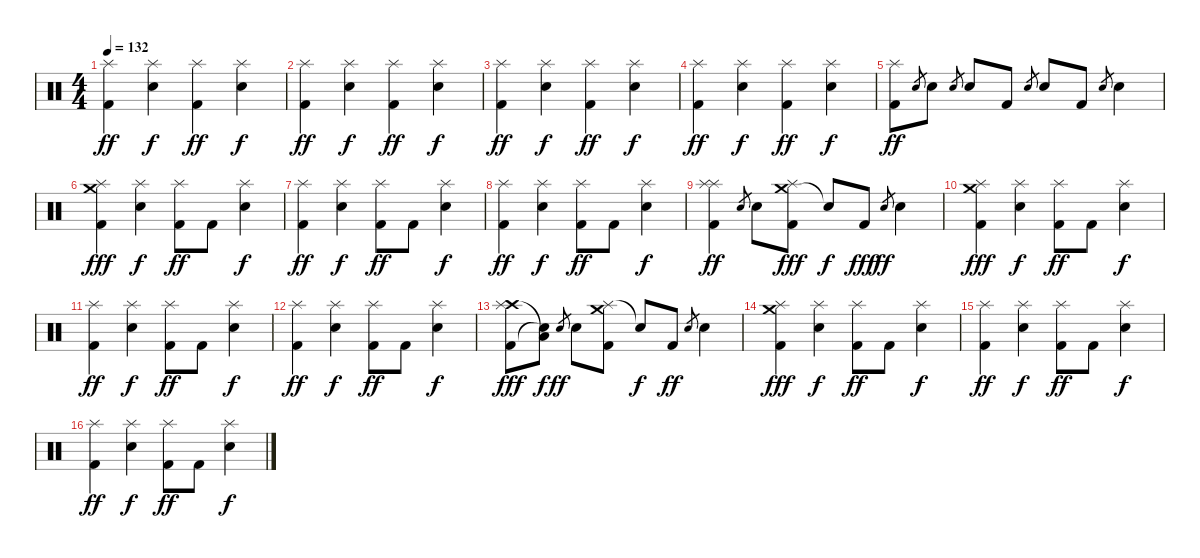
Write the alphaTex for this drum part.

\track "" {instrument percussion}
\staff {score}
\articulation defaults
\ts (4 4)
\tempo 132
\clef neutral
\ks c
("Splash (hit)" "Kick (hit) 2").4{dy ff} ("Splash (hit)" "Electric Snare (hit)").4{dy f} ("Splash (hit)" "Kick (hit) 2").4{dy ff} ("Splash (hit)" "Electric Snare (hit)").4{dy f} |
("Splash (hit)" "Kick (hit) 2").4{dy ff} ("Splash (hit)" "Electric Snare (hit)").4{dy f} ("Splash (hit)" "Kick (hit) 2").4{dy ff} ("Splash (hit)" "Electric Snare (hit)").4{dy f} |
("Splash (hit)" "Kick (hit) 2").4{dy ff} ("Splash (hit)" "Electric Snare (hit)").4{dy f} ("Splash (hit)" "Kick (hit) 2").4{dy ff} ("Splash (hit)" "Electric Snare (hit)").4{dy f} |
("Splash (hit)" "Kick (hit) 2").4{dy ff} ("Splash (hit)" "Electric Snare (hit)").4{dy f} ("Splash (hit)" "Kick (hit) 2").4{dy ff} ("Splash (hit)" "Electric Snare (hit)").4{dy f} |
("Splash (hit)" "Kick (hit) 2").8{dy ff} "Electric Snare (hit)".8{gr} "Electric Snare (hit)".8 "Electric Snare (hit)".8{gr} "Electric Snare (hit)".8 "Kick (hit) 2".8 "Electric Snare (hit)".8{gr} "Electric Snare (hit)".8 "Kick (hit) 2".8 "Electric Snare (hit)".8{gr} "Electric Snare (hit)".4 |
("Splash (hit)" "Kick (hit) 2" "Crash medium (hit)").4{dy fff} ("Splash (hit)" "Electric Snare (hit)").4{dy f} ("Splash (hit)" "Kick (hit) 2").8{dy ff} "Kick (hit) 2".8 ("Splash (hit)" "Electric Snare (hit)").4{dy f} |
("Splash (hit)" "Kick (hit) 2").4{dy ff} ("Splash (hit)" "Electric Snare (hit)").4{dy f} ("Splash (hit)" "Kick (hit) 2").8{dy ff} "Kick (hit) 2".8 ("Splash (hit)" "Electric Snare (hit)").4{dy f} |
("Splash (hit)" "Kick (hit) 2").4{dy ff} ("Splash (hit)" "Electric Snare (hit)").4{dy f} ("Splash (hit)" "Kick (hit) 2").8{dy ff} "Kick (hit) 2".8 ("Splash (hit)" "Electric Snare (hit)").4{dy f} |
("Splash (hit)" "Kick (hit) 2" "Splash (hit)").4{dy ff} "Electric Snare (hit)".8{gr} "Electric Snare (hit)".8 ("Crash medium (hit)" "Kick (hit) 2" "Splash (hit)").8{dy fff} "Snare (hit)"{t}.8{dy f} "Kick (hit) 2".8{dy fff} "Electric Snare (hit)".8{gr dy ff} "Electric Snare (hit)".4 |
("Splash (hit)" "Kick (hit) 2" "Crash medium (hit)").4{dy fff} ("Splash (hit)" "Electric Snare (hit)").4{dy f} ("Splash (hit)" "Kick (hit) 2").8{dy ff} "Kick (hit) 2".8 ("Splash (hit)" "Electric Snare (hit)").4{dy f} |
("Splash (hit)" "Kick (hit) 2").4{dy ff} ("Splash (hit)" "Electric Snare (hit)").4{dy f} ("Splash (hit)" "Kick (hit) 2").8{dy ff} "Kick (hit) 2".8 ("Splash (hit)" "Electric Snare (hit)").4{dy f} |
("Splash (hit)" "Kick (hit) 2").4{dy ff} ("Splash (hit)" "Electric Snare (hit)").4{dy f} ("Splash (hit)" "Kick (hit) 2").8{dy ff} "Kick (hit) 2".8 ("Splash (hit)" "Electric Snare (hit)").4{dy f} |
("Crash high (hit)" "Kick (hit) 2" "Splash (hit)").8{dy fff} ("Low Tom (hit)"{t} "Snare (hit)"{t}).8{dy f} "Electric Snare (hit)".8{gr dy ff} "Electric Snare (hit)".8 ("Splash (hit)" "Kick (hit) 2" "Crash medium (hit)").8 "Snare (hit)"{t}.8{dy f} "Kick (hit) 2".8{dy ff} "Electric Snare (hit)".8{gr} "Electric Snare (hit)".4 |
("Splash (hit)" "Kick (hit) 2" "Crash medium (hit)").4{dy fff} ("Splash (hit)" "Electric Snare (hit)").4{dy f} ("Splash (hit)" "Kick (hit) 2").8{dy ff} "Kick (hit) 2".8 ("Splash (hit)" "Electric Snare (hit)").4{dy f} |
("Splash (hit)" "Kick (hit) 2").4{dy ff} ("Splash (hit)" "Electric Snare (hit)").4{dy f} ("Splash (hit)" "Kick (hit) 2").8{dy ff} "Kick (hit) 2".8 ("Splash (hit)" "Electric Snare (hit)").4{dy f} |
("Splash (hit)" "Kick (hit) 2").4{dy ff} ("Splash (hit)" "Electric Snare (hit)").4{dy f} ("Splash (hit)" "Kick (hit) 2").8{dy ff} "Kick (hit) 2".8 ("Splash (hit)" "Electric Snare (hit)").4{dy f}
